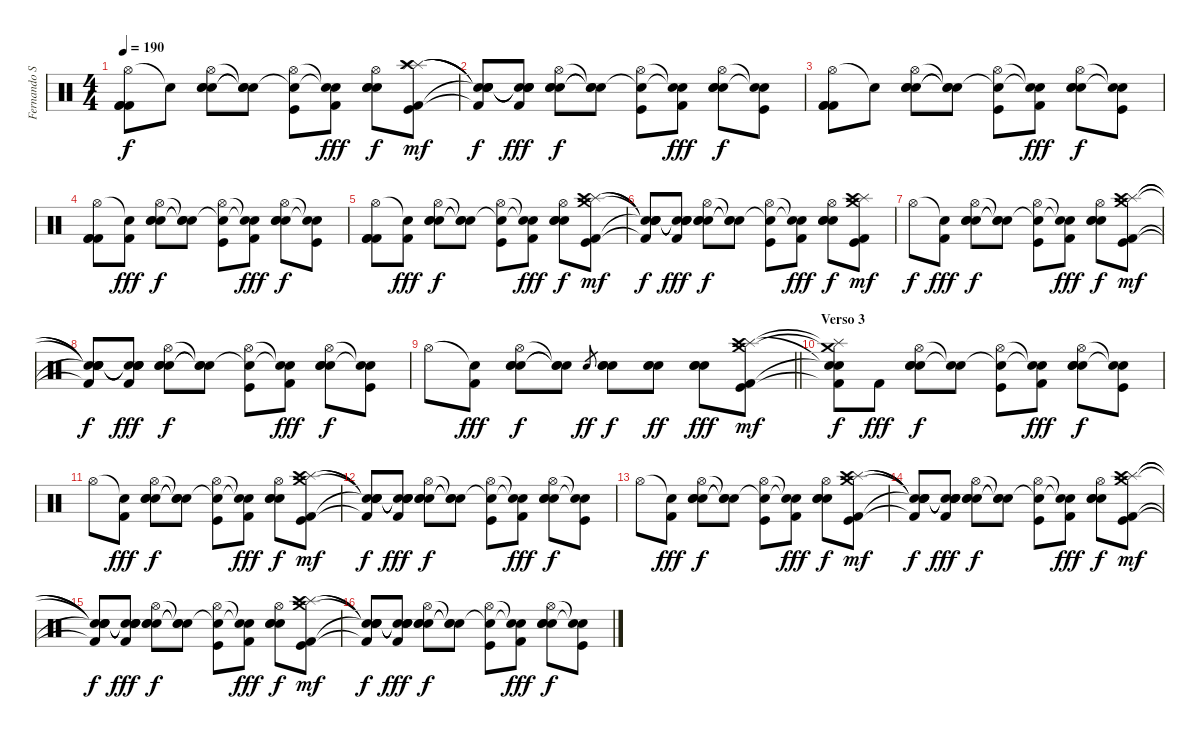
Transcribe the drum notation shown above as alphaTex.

\track ("Fernando Scarcella" "Fernando S") {instrument percussion}
\staff {score}
\articulation defaults
\ts (4 4)
\tempo 190
\clef neutral
\ks c
("Hi-Hat (open)" "Kick (hit) 2" "Kick (hit) 2" "Kick (hit) 2").8{dy f} "Snare (hit)"{t}.8 ("Hi-Hat (open)" "Electric Snare (hit)" "Electric Snare (hit)" "Electric Snare (hit)").8 ("Snare (hit)"{t} "Snare (hit)"{t} "Snare (hit)"{t}).8 ("Hi-Hat (open)" "Snare (hit)"{t} "Kick (hit)").8 ("Snare (hit)"{t} "Snare (hit)"{t} "Kick (hit) 2").8{dy fff} ("Hi-Hat (open)" "Electric Snare (hit)" "Electric Snare (hit)" "Electric Snare (hit)").8{dy f} ("Splash (hit)" "Splash (hit)" "Crash high (hit)" "Kick (hit) 2" "Kick (hit)").8{dy mf} |
("Snare (hit)"{t} "Snare (hit)"{t} "Snare (hit)"{t} "Snare (hit)"{t} "Kick (hit) 2"{t}).8{dy f} ("Snare (hit)"{t} "Snare (hit)"{t} "Snare (hit)"{t} "Snare (hit)"{t} "Kick (hit) 2").8{dy fff} ("Hi-Hat (open)" "Electric Snare (hit)" "Electric Snare (hit)" "Electric Snare (hit)").8{dy f} ("Snare (hit)"{t} "Snare (hit)"{t} "Snare (hit)"{t}).8 ("Hi-Hat (open)" "Snare (hit)"{t} "Kick (hit)").8 ("Snare (hit)"{t} "Snare (hit)"{t} "Kick (hit) 2").8{dy fff} ("Hi-Hat (open)" "Electric Snare (hit)" "Electric Snare (hit)" "Electric Snare (hit)").8{dy f} ("Snare (hit)"{t} "Snare (hit)"{t} "Kick (hit)").8 |
("Hi-Hat (open)" "Kick (hit) 2" "Kick (hit) 2" "Kick (hit) 2").8 "Snare (hit)"{t}.8 ("Hi-Hat (open)" "Electric Snare (hit)" "Electric Snare (hit)" "Electric Snare (hit)").8 ("Snare (hit)"{t} "Snare (hit)"{t} "Snare (hit)"{t}).8 ("Hi-Hat (open)" "Snare (hit)"{t} "Kick (hit)").8 ("Snare (hit)"{t} "Snare (hit)"{t} "Kick (hit) 2").8{dy fff} ("Hi-Hat (open)" "Electric Snare (hit)" "Electric Snare (hit)" "Electric Snare (hit)").8{dy f} ("Snare (hit)"{t} "Snare (hit)"{t} "Kick (hit)").8 |
("Hi-Hat (open)" "Kick (hit) 2" "Kick (hit) 2" "Kick (hit) 2").8 ("Snare (hit)"{t} "Kick (hit) 2").8{dy fff} ("Hi-Hat (open)" "Electric Snare (hit)" "Electric Snare (hit)" "Electric Snare (hit)").8{dy f} ("Snare (hit)"{t} "Snare (hit)"{t} "Snare (hit)"{t}).8 ("Hi-Hat (open)" "Snare (hit)"{t} "Kick (hit)").8 ("Snare (hit)"{t} "Snare (hit)"{t} "Kick (hit) 2").8{dy fff} ("Hi-Hat (open)" "Electric Snare (hit)" "Electric Snare (hit)" "Electric Snare (hit)").8{dy f} ("Snare (hit)"{t} "Snare (hit)"{t} "Kick (hit)").8 |
("Hi-Hat (open)" "Kick (hit) 2" "Kick (hit) 2" "Kick (hit) 2").8 ("Snare (hit)"{t} "Kick (hit) 2").8{dy fff} ("Hi-Hat (open)" "Electric Snare (hit)" "Electric Snare (hit)" "Electric Snare (hit)").8{dy f} ("Snare (hit)"{t} "Snare (hit)"{t} "Snare (hit)"{t}).8 ("Hi-Hat (open)" "Snare (hit)"{t} "Kick (hit)").8 ("Snare (hit)"{t} "Snare (hit)"{t} "Kick (hit) 2").8{dy fff} ("Hi-Hat (open)" "Electric Snare (hit)" "Electric Snare (hit)" "Electric Snare (hit)").8{dy f} ("Crash medium (hit)" "Splash (hit)" "Crash high (hit)" "Kick (hit) 2" "Kick (hit)").8{dy mf} |
("Snare (hit)"{t} "Snare (hit)"{t} "Snare (hit)"{t} "Snare (hit)"{t} "Kick (hit) 2"{t}).8{dy f} ("Snare (hit)"{t} "Snare (hit)"{t} "Snare (hit)"{t} "Snare (hit)"{t} "Kick (hit) 2").8{dy fff} ("Hi-Hat (open)" "Electric Snare (hit)" "Electric Snare (hit)" "Electric Snare (hit)").8{dy f} ("Snare (hit)"{t} "Snare (hit)"{t} "Snare (hit)"{t}).8 ("Hi-Hat (open)" "Snare (hit)"{t} "Kick (hit)").8 ("Snare (hit)"{t} "Snare (hit)"{t} "Kick (hit) 2").8{dy fff} ("Hi-Hat (open)" "Electric Snare (hit)" "Electric Snare (hit)" "Electric Snare (hit)").8{dy f} ("Crash medium (hit)" "Splash (hit)" "Crash high (hit)" "Kick (hit) 2" "Kick (hit)").8{dy mf} |
"Hi-Hat (open)".8{dy f} ("Snare (hit)"{t} "Kick (hit) 2").8{dy fff} ("Hi-Hat (open)" "Electric Snare (hit)" "Electric Snare (hit)" "Electric Snare (hit)").8{dy f} ("Snare (hit)"{t} "Snare (hit)"{t} "Snare (hit)"{t}).8 ("Hi-Hat (open)" "Snare (hit)"{t} "Kick (hit)").8 ("Snare (hit)"{t} "Snare (hit)"{t} "Kick (hit) 2").8{dy fff} ("Hi-Hat (open)" "Electric Snare (hit)" "Electric Snare (hit)" "Electric Snare (hit)").8{dy f} ("Crash medium (hit)" "Splash (hit)" "Crash high (hit)" "Kick (hit) 2" "Kick (hit)").8{dy mf} |
("Snare (hit)"{t} "Snare (hit)"{t} "Snare (hit)"{t} "Snare (hit)"{t} "Kick (hit) 2"{t}).8{dy f} ("Snare (hit)"{t} "Snare (hit)"{t} "Snare (hit)"{t} "Snare (hit)"{t} "Kick (hit) 2").8{dy fff} ("Hi-Hat (open)" "Electric Snare (hit)" "Electric Snare (hit)" "Electric Snare (hit)").8{dy f} ("Snare (hit)"{t} "Snare (hit)"{t} "Snare (hit)"{t}).8 ("Hi-Hat (open)" "Snare (hit)"{t} "Kick (hit)").8 ("Snare (hit)"{t} "Snare (hit)"{t} "Kick (hit) 2").8{dy fff} ("Hi-Hat (open)" "Electric Snare (hit)" "Electric Snare (hit)" "Electric Snare (hit)").8{dy f} ("Snare (hit)"{t} "Snare (hit)"{t} "Kick (hit)").8 |
\barLineRight lightlight "Hi-Hat (open)".8
("Snare (hit)"{t} "Kick (hit) 2").8{dy fff} ("Hi-Hat (open)" "Electric Snare (hit)" "Electric Snare (hit)" "Electric Snare (hit)").8{dy f} ("Snare (hit)"{t} "Snare (hit)"{t} "Snare (hit)"{t}).8 "Electric Snare (hit)".8{gr dy ff} ("Electric Snare (hit)" "Electric Snare (hit)" "Electric Snare (hit)").8{dy f} ("Electric Snare (hit)" "Electric Snare (hit)" "Electric Snare (hit)").8{dy ff} ("Electric Snare (hit)" "Electric Snare (hit)" "Electric Snare (hit)").8{dy fff} ("Crash medium (hit)" "Splash (hit)" "Crash high (hit)" "Kick (hit) 2" "Kick (hit)").8{dy mf} |
\section ("" "Verso 3")
("Crash medium (hit)"{t} "Splash (hit)"{t} "Snare (hit)"{t} "Snare (hit)"{t} "Kick (hit) 2"{t}).8{dy f} "Kick (hit) 2".8{dy fff} ("Hi-Hat (open)" "Electric Snare (hit)" "Electric Snare (hit)" "Electric Snare (hit)").8{dy f} ("Snare (hit)"{t} "Snare (hit)"{t}).8 ("Hi-Hat (open)" "Snare (hit)"{t} "Kick (hit)").8 ("Snare (hit)"{t} "Snare (hit)"{t} "Kick (hit) 2").8{dy fff} ("Hi-Hat (open)" "Electric Snare (hit)" "Electric Snare (hit)" "Electric Snare (hit)").8{dy f} ("Snare (hit)"{t} "Snare (hit)"{t} "Kick (hit)").8 |
"Hi-Hat (open)".8 ("Snare (hit)"{t} "Kick (hit) 2").8{dy fff} ("Hi-Hat (open)" "Electric Snare (hit)" "Electric Snare (hit)" "Electric Snare (hit)").8{dy f} ("Snare (hit)"{t} "Snare (hit)"{t} "Snare (hit)"{t}).8 ("Hi-Hat (open)" "Snare (hit)"{t} "Kick (hit)").8 ("Snare (hit)"{t} "Snare (hit)"{t} "Kick (hit) 2").8{dy fff} ("Hi-Hat (open)" "Electric Snare (hit)" "Electric Snare (hit)" "Electric Snare (hit)").8{dy f} ("Crash medium (hit)" "Splash (hit)" "Crash high (hit)" "Kick (hit) 2" "Kick (hit)").8{dy mf} |
("Snare (hit)"{t} "Snare (hit)"{t} "Snare (hit)"{t} "Snare (hit)"{t} "Kick (hit) 2"{t}).8{dy f} ("Snare (hit)"{t} "Snare (hit)"{t} "Snare (hit)"{t} "Snare (hit)"{t} "Kick (hit) 2").8{dy fff} ("Hi-Hat (open)" "Electric Snare (hit)" "Electric Snare (hit)" "Electric Snare (hit)").8{dy f} ("Snare (hit)"{t} "Snare (hit)"{t} "Snare (hit)"{t}).8 ("Hi-Hat (open)" "Snare (hit)"{t} "Kick (hit)").8 ("Snare (hit)"{t} "Snare (hit)"{t} "Kick (hit) 2").8{dy fff} ("Hi-Hat (open)" "Electric Snare (hit)" "Electric Snare (hit)" "Electric Snare (hit)").8{dy f} ("Snare (hit)"{t} "Snare (hit)"{t} "Kick (hit)").8 |
"Hi-Hat (open)".8 ("Snare (hit)"{t} "Kick (hit) 2").8{dy fff} ("Hi-Hat (open)" "Electric Snare (hit)" "Electric Snare (hit)" "Electric Snare (hit)").8{dy f} ("Snare (hit)"{t} "Snare (hit)"{t} "Snare (hit)"{t}).8 ("Hi-Hat (open)" "Snare (hit)"{t} "Kick (hit)").8 ("Snare (hit)"{t} "Snare (hit)"{t} "Kick (hit) 2").8{dy fff} ("Hi-Hat (open)" "Electric Snare (hit)" "Electric Snare (hit)" "Electric Snare (hit)").8{dy f} ("Crash medium (hit)" "Splash (hit)" "Crash high (hit)" "Kick (hit) 2" "Kick (hit)").8{dy mf} |
("Snare (hit)"{t} "Snare (hit)"{t} "Snare (hit)"{t} "Snare (hit)"{t} "Kick (hit) 2"{t}).8{dy f} ("Snare (hit)"{t} "Snare (hit)"{t} "Snare (hit)"{t} "Snare (hit)"{t} "Kick (hit) 2").8{dy fff} ("Hi-Hat (open)" "Electric Snare (hit)" "Electric Snare (hit)" "Electric Snare (hit)").8{dy f} ("Snare (hit)"{t} "Snare (hit)"{t} "Snare (hit)"{t}).8 ("Hi-Hat (open)" "Snare (hit)"{t} "Kick (hit)").8 ("Snare (hit)"{t} "Snare (hit)"{t} "Kick (hit) 2").8{dy fff} ("Hi-Hat (open)" "Electric Snare (hit)" "Electric Snare (hit)" "Electric Snare (hit)").8{dy f} ("Crash medium (hit)" "Splash (hit)" "Crash high (hit)" "Kick (hit) 2" "Kick (hit)").8{dy mf} |
("Snare (hit)"{t} "Snare (hit)"{t} "Snare (hit)"{t} "Snare (hit)"{t} "Kick (hit) 2"{t}).8{dy f} ("Snare (hit)"{t} "Snare (hit)"{t} "Snare (hit)"{t} "Snare (hit)"{t} "Kick (hit) 2").8{dy fff} ("Hi-Hat (open)" "Electric Snare (hit)" "Electric Snare (hit)" "Electric Snare (hit)").8{dy f} ("Snare (hit)"{t} "Snare (hit)"{t} "Snare (hit)"{t}).8 ("Hi-Hat (open)" "Snare (hit)"{t} "Kick (hit)").8 ("Snare (hit)"{t} "Snare (hit)"{t} "Kick (hit) 2").8{dy fff} ("Hi-Hat (open)" "Electric Snare (hit)" "Electric Snare (hit)" "Electric Snare (hit)").8{dy f} ("Crash medium (hit)" "Splash (hit)" "Crash high (hit)" "Kick (hit) 2" "Kick (hit)").8{dy mf} |
("Snare (hit)"{t} "Snare (hit)"{t} "Snare (hit)"{t} "Snare (hit)"{t} "Kick (hit) 2"{t}).8{dy f} ("Snare (hit)"{t} "Snare (hit)"{t} "Snare (hit)"{t} "Snare (hit)"{t} "Kick (hit) 2").8{dy fff} ("Hi-Hat (open)" "Electric Snare (hit)" "Electric Snare (hit)" "Electric Snare (hit)").8{dy f} ("Snare (hit)"{t} "Snare (hit)"{t} "Snare (hit)"{t}).8 ("Hi-Hat (open)" "Snare (hit)"{t} "Kick (hit)").8 ("Snare (hit)"{t} "Snare (hit)"{t} "Kick (hit) 2").8{dy fff} ("Hi-Hat (open)" "Electric Snare (hit)" "Electric Snare (hit)" "Electric Snare (hit)").8{dy f} ("Snare (hit)"{t} "Snare (hit)"{t} "Kick (hit)").8
